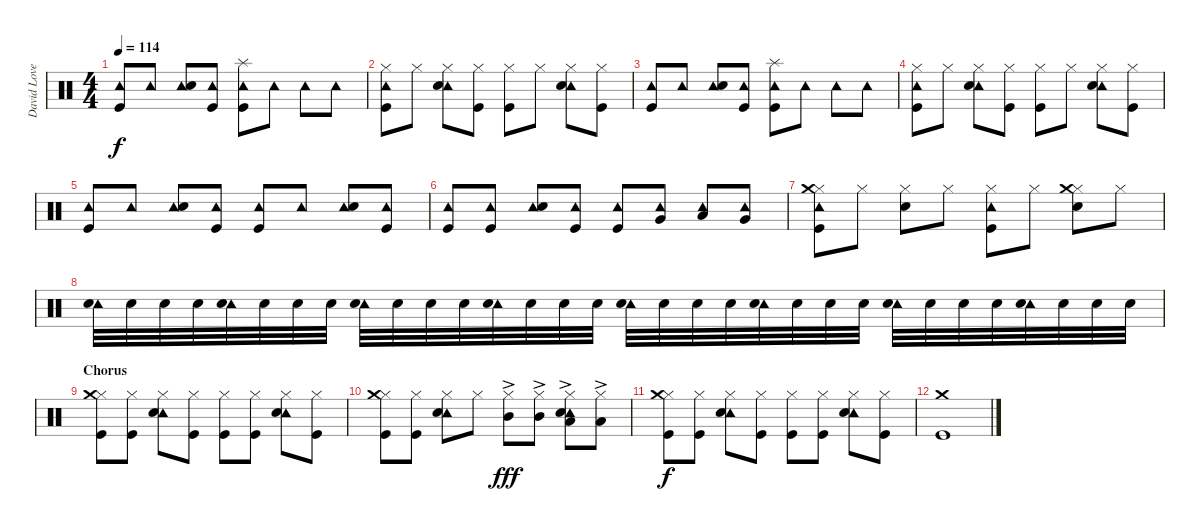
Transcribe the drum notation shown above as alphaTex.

\track ("David Lovering" "David Love") {instrument percussion}
\staff {score}
\articulation defaults
\ts (4 4)
\tempo 114
\clef neutral
\ks c
("Tambourine (hit)" "Kick (hit)").8{dy f} "Tambourine (hit)".8 ("Tambourine (hit)" "Snare (hit) 2").8 ("Tambourine (hit)" "Kick (hit)").8 ("Tambourine (hit)" "Splash (hit)" "Kick (hit)").8 "Tambourine (hit)".8 "Tambourine (hit)".8 "Tambourine (hit)".8 |
("Hi-Hat (closed)" "Tambourine (hit)" "Kick (hit)").8 "Hi-Hat (closed)".8 ("Hi-Hat (closed)" "Tambourine (hit)" "Snare (hit) 2").8 ("Hi-Hat (closed)" "Kick (hit)").8 ("Hi-Hat (closed)" "Kick (hit)").8 "Hi-Hat (closed)".8 ("Hi-Hat (closed)" "Tambourine (hit)" "Snare (hit) 2").8 ("Hi-Hat (closed)" "Kick (hit)").8 |
("Tambourine (hit)" "Kick (hit)").8 "Tambourine (hit)".8 ("Tambourine (hit)" "Snare (hit) 2").8 ("Tambourine (hit)" "Kick (hit)").8 ("Tambourine (hit)" "Splash (hit)" "Kick (hit)").8 "Tambourine (hit)".8 "Tambourine (hit)".8 "Tambourine (hit)".8 |
("Hi-Hat (closed)" "Tambourine (hit)" "Kick (hit)").8 "Hi-Hat (closed)".8 ("Hi-Hat (closed)" "Tambourine (hit)" "Snare (hit) 2").8 ("Hi-Hat (closed)" "Kick (hit)").8 ("Hi-Hat (closed)" "Kick (hit)").8 "Hi-Hat (closed)".8 ("Hi-Hat (closed)" "Tambourine (hit)" "Snare (hit) 2").8 ("Hi-Hat (closed)" "Kick (hit)").8 |
("Tambourine (hit)" "Kick (hit)").8 "Tambourine (hit)".8 ("Tambourine (hit)" "Snare (hit) 2").8 ("Tambourine (hit)" "Kick (hit)").8 ("Tambourine (hit)" "Kick (hit)").8 "Tambourine (hit)".8 ("Tambourine (hit)" "Snare (hit) 2").8 ("Tambourine (hit)" "Kick (hit)").8 |
("Tambourine (hit)" "Kick (hit)").8 ("Tambourine (hit)" "Kick (hit)").8 ("Tambourine (hit)" "Snare (hit) 2").8 ("Tambourine (hit)" "Kick (hit)").8 ("Tambourine (hit)" "Kick (hit)").8 ("Tambourine (hit)" "Very Low Tom (hit)").8 ("Tambourine (hit)" "Low Tom (hit)").8 ("Tambourine (hit)" "Very Low Tom (hit)").8 |
("Hi-Hat (closed)" "Tambourine (hit)" "Crash medium (hit)" "Kick (hit)").8 "Hi-Hat (closed)".8 ("Hi-Hat (closed)" "Snare (hit) 2").8 "Hi-Hat (closed)".8 ("Hi-Hat (closed)" "Tambourine (hit)" "Kick (hit)").8 "Hi-Hat (closed)".8 ("Hi-Hat (closed)" "Crash medium (hit)" "Snare (hit) 2").8 "Hi-Hat (closed)".8 |
("Tambourine (hit)" "Snare (hit) 2").32 "Snare (hit) 2".32 "Snare (hit) 2".32 "Snare (hit) 2".32 ("Tambourine (hit)" "Snare (hit) 2").32 "Snare (hit) 2".32 "Snare (hit) 2".32 "Snare (hit) 2".32 ("Tambourine (hit)" "Snare (hit) 2").32 "Snare (hit) 2".32 "Snare (hit) 2".32 "Snare (hit) 2".32 ("Tambourine (hit)" "Snare (hit) 2").32 "Snare (hit) 2".32 "Snare (hit) 2".32 "Snare (hit) 2".32 ("Tambourine (hit)" "Snare (hit) 2").32 "Snare (hit) 2".32 "Snare (hit) 2".32 "Snare (hit) 2".32 ("Tambourine (hit)" "Snare (hit) 2").32 "Snare (hit) 2".32 "Snare (hit) 2".32 "Snare (hit) 2".32 ("Tambourine (hit)" "Snare (hit) 2").32 "Snare (hit) 2".32 "Snare (hit) 2".32 "Snare (hit) 2".32 ("Tambourine (hit)" "Snare (hit) 2").32 "Snare (hit) 2".32 "Snare (hit) 2".32 "Snare (hit) 2".32 |
\section ("" "Chorus")
("Hi-Hat (closed)" "Crash medium (hit)" "Kick (hit)").8 ("Hi-Hat (closed)" "Kick (hit)").8 ("Hi-Hat (closed)" "Tambourine (hit)" "Snare (hit) 2").8 ("Hi-Hat (closed)" "Kick (hit)").8 ("Hi-Hat (closed)" "Kick (hit)").8 ("Hi-Hat (closed)" "Kick (hit)").8 ("Hi-Hat (closed)" "Tambourine (hit)" "Snare (hit) 2").8 ("Hi-Hat (closed)" "Kick (hit)").8 |
("Hi-Hat (closed)" "Crash medium (hit)" "Kick (hit)").8 ("Hi-Hat (closed)" "Kick (hit)").8 ("Hi-Hat (closed)" "Tambourine (hit)" "Snare (hit) 2").8 "Hi-Hat (closed)".8 ("Hi-Hat (closed)" "Mid Tom (hit)"{ac}).8{dy fff} ("Hi-Hat (closed)" "Mid Tom (hit)"{ac}).8 ("Hi-Hat (closed)" "Tambourine (hit)" "Snare (hit) 2" "Low Tom (hit)"{ac}).8 ("Hi-Hat (closed)" "Low Tom (hit)"{ac}).8 |
("Hi-Hat (closed)" "Crash medium (hit)" "Kick (hit)").8{dy f} ("Hi-Hat (closed)" "Kick (hit)").8 ("Hi-Hat (closed)" "Tambourine (hit)" "Snare (hit) 2").8 ("Hi-Hat (closed)" "Kick (hit)").8 ("Hi-Hat (closed)" "Kick (hit)").8 ("Hi-Hat (closed)" "Kick (hit)").8 ("Hi-Hat (closed)" "Tambourine (hit)" "Snare (hit) 2").8 ("Hi-Hat (closed)" "Kick (hit)").8 |
("Crash medium (hit)" "Kick (hit)").1
